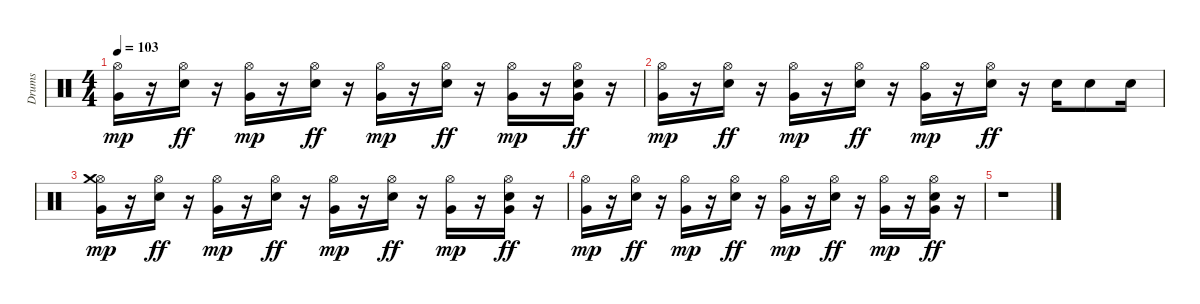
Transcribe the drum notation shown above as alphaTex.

\track ("Drums" "Drums") {instrument percussion}
\staff {score}
\articulation defaults
\ts (4 4)
\tempo 103
\clef neutral
\ks c
("Hi-Hat (open)" "Very Low Tom (hit)").16{dy mp} r.16 ("Hi-Hat (open)" "Electric Snare (hit)").16{dy ff} r.16 ("Hi-Hat (open)" "Very Low Tom (hit)").16{dy mp} r.16 ("Hi-Hat (open)" "Electric Snare (hit)").16{dy ff} r.16 ("Hi-Hat (open)" "Very Low Tom (hit)").16{dy mp} r.16 ("Hi-Hat (open)" "Electric Snare (hit)").16{dy ff} r.16 ("Hi-Hat (open)" "Very Low Tom (hit)").16{dy mp} r.16 ("Hi-Hat (open)" "Electric Snare (hit)" "Very Low Tom (hit)").16{dy ff} r.16 |
("Hi-Hat (open)" "Very Low Tom (hit)").16{dy mp} r.16 ("Hi-Hat (open)" "Electric Snare (hit)").16{dy ff} r.16 ("Hi-Hat (open)" "Very Low Tom (hit)").16{dy mp} r.16 ("Hi-Hat (open)" "Electric Snare (hit)").16{dy ff} r.16 ("Hi-Hat (open)" "Very Low Tom (hit)").16{dy mp} r.16 ("Hi-Hat (open)" "Electric Snare (hit)").16{dy ff} r.16 "Electric Snare (hit)".16 "Electric Snare (hit)".8 "Electric Snare (hit)".16 |
("Hi-Hat (open)" "Crash medium (hit)" "Very Low Tom (hit)").16{dy mp} r.16 ("Hi-Hat (open)" "Electric Snare (hit)").16{dy ff} r.16 ("Hi-Hat (open)" "Very Low Tom (hit)").16{dy mp} r.16 ("Hi-Hat (open)" "Electric Snare (hit)").16{dy ff} r.16 ("Hi-Hat (open)" "Very Low Tom (hit)").16{dy mp} r.16 ("Hi-Hat (open)" "Electric Snare (hit)").16{dy ff} r.16 ("Hi-Hat (open)" "Very Low Tom (hit)").16{dy mp} r.16 ("Hi-Hat (open)" "Electric Snare (hit)" "Very Low Tom (hit)").16{dy ff} r.16 |
("Hi-Hat (open)" "Very Low Tom (hit)").16{dy mp} r.16 ("Hi-Hat (open)" "Electric Snare (hit)").16{dy ff} r.16 ("Hi-Hat (open)" "Very Low Tom (hit)").16{dy mp} r.16 ("Hi-Hat (open)" "Electric Snare (hit)").16{dy ff} r.16 ("Hi-Hat (open)" "Very Low Tom (hit)").16{dy mp} r.16 ("Hi-Hat (open)" "Electric Snare (hit)").16{dy ff} r.16 ("Hi-Hat (open)" "Very Low Tom (hit)").16{dy mp} r.16 ("Hi-Hat (open)" "Electric Snare (hit)" "Very Low Tom (hit)").16{dy ff} r.16 |
r.1
